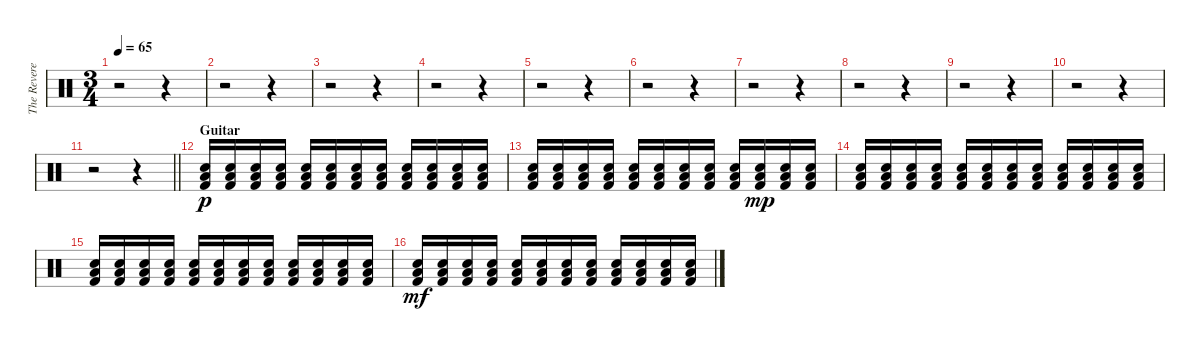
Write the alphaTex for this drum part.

\track ("The Reverend" "The Revere") {instrument percussion}
\staff {score}
\articulation defaults
\ts (3 4)
\tempo 65
\clef neutral
\ks c
r.2{dy f} r.4 |
r.2 r.4 |
r.2 r.4 |
r.2 r.4 |
r.2 r.4 |
r.2 r.4 |
r.2 r.4 |
r.2 r.4 |
r.2 r.4 |
r.2 r.4 |
\barLineRight lightlight
r.2 r.4 |
\section ("" "Guitar")
("Kick (hit) 2" "Electric Snare (hit)" "Low Tom (hit)").16{dy p} ("Kick (hit) 2" "Electric Snare (hit)" "Low Tom (hit)").16 ("Kick (hit) 2" "Electric Snare (hit)" "Low Tom (hit)").16 ("Kick (hit) 2" "Electric Snare (hit)" "Low Tom (hit)").16 ("Kick (hit) 2" "Electric Snare (hit)" "Low Tom (hit)").16 ("Kick (hit) 2" "Electric Snare (hit)" "Low Tom (hit)").16 ("Kick (hit) 2" "Electric Snare (hit)" "Low Tom (hit)").16 ("Kick (hit) 2" "Electric Snare (hit)" "Low Tom (hit)").16 ("Kick (hit) 2" "Electric Snare (hit)" "Low Tom (hit)").16 ("Kick (hit) 2" "Electric Snare (hit)" "Low Tom (hit)").16 ("Kick (hit) 2" "Electric Snare (hit)" "Low Tom (hit)").16 ("Kick (hit) 2" "Electric Snare (hit)" "Low Tom (hit)").16 |
("Kick (hit) 2" "Electric Snare (hit)" "Low Tom (hit)").16 ("Kick (hit) 2" "Electric Snare (hit)" "Low Tom (hit)").16 ("Kick (hit) 2" "Electric Snare (hit)" "Low Tom (hit)").16 ("Kick (hit) 2" "Electric Snare (hit)" "Low Tom (hit)").16 ("Kick (hit) 2" "Electric Snare (hit)" "Low Tom (hit)").16 ("Kick (hit) 2" "Electric Snare (hit)" "Low Tom (hit)").16 ("Kick (hit) 2" "Electric Snare (hit)" "Low Tom (hit)").16 ("Kick (hit) 2" "Electric Snare (hit)" "Low Tom (hit)").16 ("Kick (hit) 2" "Electric Snare (hit)" "Low Tom (hit)").16 ("Kick (hit) 2" "Electric Snare (hit)" "Low Tom (hit)").16{dy mp} ("Kick (hit) 2" "Electric Snare (hit)" "Low Tom (hit)").16 ("Kick (hit) 2" "Electric Snare (hit)" "Low Tom (hit)").16 |
("Kick (hit) 2" "Electric Snare (hit)" "Low Tom (hit)").16 ("Kick (hit) 2" "Electric Snare (hit)" "Low Tom (hit)").16 ("Kick (hit) 2" "Electric Snare (hit)" "Low Tom (hit)").16 ("Kick (hit) 2" "Electric Snare (hit)" "Low Tom (hit)").16 ("Kick (hit) 2" "Electric Snare (hit)" "Low Tom (hit)").16 ("Kick (hit) 2" "Electric Snare (hit)" "Low Tom (hit)").16 ("Kick (hit) 2" "Electric Snare (hit)" "Low Tom (hit)").16 ("Kick (hit) 2" "Electric Snare (hit)" "Low Tom (hit)").16 ("Kick (hit) 2" "Electric Snare (hit)" "Low Tom (hit)").16 ("Kick (hit) 2" "Electric Snare (hit)" "Low Tom (hit)").16 ("Kick (hit) 2" "Electric Snare (hit)" "Low Tom (hit)").16 ("Kick (hit) 2" "Electric Snare (hit)" "Low Tom (hit)").16 |
("Kick (hit) 2" "Electric Snare (hit)" "Low Tom (hit)").16 ("Kick (hit) 2" "Electric Snare (hit)" "Low Tom (hit)").16 ("Kick (hit) 2" "Electric Snare (hit)" "Low Tom (hit)").16 ("Kick (hit) 2" "Electric Snare (hit)" "Low Tom (hit)").16 ("Kick (hit) 2" "Electric Snare (hit)" "Low Tom (hit)").16 ("Kick (hit) 2" "Electric Snare (hit)" "Low Tom (hit)").16 ("Kick (hit) 2" "Electric Snare (hit)" "Low Tom (hit)").16 ("Kick (hit) 2" "Electric Snare (hit)" "Low Tom (hit)").16 ("Kick (hit) 2" "Electric Snare (hit)" "Low Tom (hit)").16 ("Kick (hit) 2" "Electric Snare (hit)" "Low Tom (hit)").16 ("Kick (hit) 2" "Electric Snare (hit)" "Low Tom (hit)").16 ("Kick (hit) 2" "Electric Snare (hit)" "Low Tom (hit)").16 |
("Kick (hit) 2" "Electric Snare (hit)" "Low Tom (hit)").16{dy mf} ("Kick (hit) 2" "Electric Snare (hit)" "Low Tom (hit)").16 ("Kick (hit) 2" "Electric Snare (hit)" "Low Tom (hit)").16 ("Kick (hit) 2" "Electric Snare (hit)" "Low Tom (hit)").16 ("Kick (hit) 2" "Electric Snare (hit)" "Low Tom (hit)").16 ("Kick (hit) 2" "Electric Snare (hit)" "Low Tom (hit)").16 ("Kick (hit) 2" "Electric Snare (hit)" "Low Tom (hit)").16 ("Kick (hit) 2" "Electric Snare (hit)" "Low Tom (hit)").16 ("Kick (hit) 2" "Electric Snare (hit)" "Low Tom (hit)").16 ("Kick (hit) 2" "Electric Snare (hit)" "Low Tom (hit)").16 ("Kick (hit) 2" "Electric Snare (hit)" "Low Tom (hit)").16 ("Kick (hit) 2" "Electric Snare (hit)" "Low Tom (hit)").16
